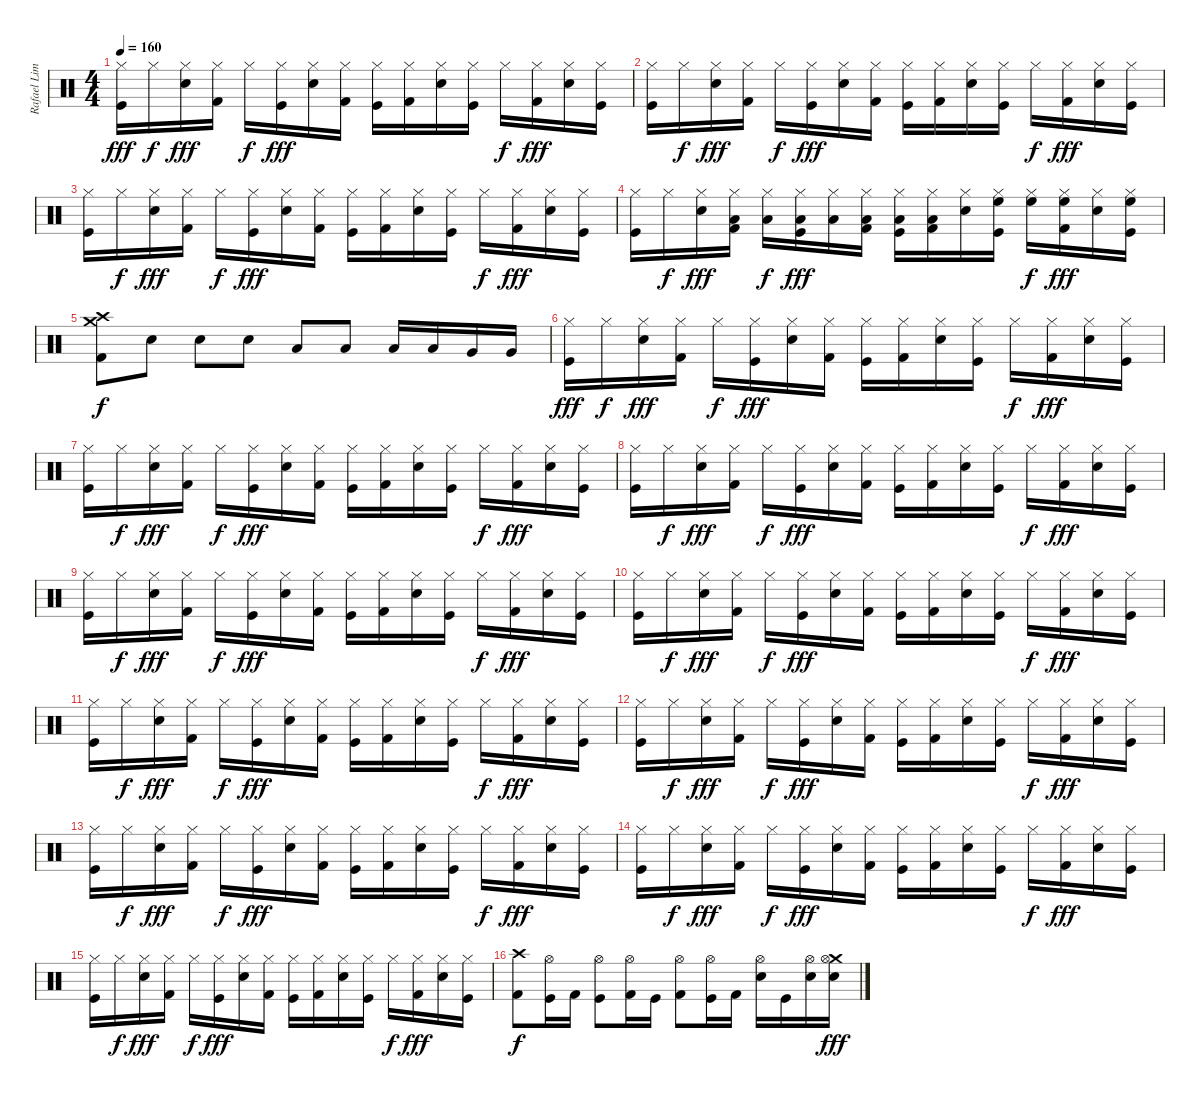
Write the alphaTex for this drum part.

\track ("Rafael Lima" "Rafael Lim") {instrument percussion}
\staff {score}
\articulation defaults
\ts (4 4)
\tempo 160
\clef neutral
\ks c
("Hi-Hat (closed)" "Kick (hit)").16{dy fff} "Hi-Hat (closed)".16{dy f} ("Hi-Hat (closed)" "Electric Snare (hit)").16{dy fff} ("Hi-Hat (closed)" "Kick (hit) 2").16 "Hi-Hat (closed)".16{dy f} ("Hi-Hat (closed)" "Kick (hit)").16{dy fff} ("Hi-Hat (closed)" "Electric Snare (hit)").16 ("Hi-Hat (closed)" "Kick (hit) 2").16 ("Hi-Hat (closed)" "Kick (hit)").16 ("Hi-Hat (closed)" "Kick (hit) 2").16 ("Hi-Hat (closed)" "Electric Snare (hit)").16 ("Hi-Hat (closed)" "Kick (hit)").16 "Hi-Hat (closed)".16{dy f} ("Hi-Hat (closed)" "Kick (hit) 2").16{dy fff} ("Hi-Hat (closed)" "Electric Snare (hit)").16 ("Hi-Hat (closed)" "Kick (hit)").16 |
("Hi-Hat (closed)" "Kick (hit)").16 "Hi-Hat (closed)".16{dy f} ("Hi-Hat (closed)" "Electric Snare (hit)").16{dy fff} ("Hi-Hat (closed)" "Kick (hit) 2").16 "Hi-Hat (closed)".16{dy f} ("Hi-Hat (closed)" "Kick (hit)").16{dy fff} ("Hi-Hat (closed)" "Electric Snare (hit)").16 ("Hi-Hat (closed)" "Kick (hit) 2").16 ("Hi-Hat (closed)" "Kick (hit)").16 ("Hi-Hat (closed)" "Kick (hit) 2").16 ("Hi-Hat (closed)" "Electric Snare (hit)").16 ("Hi-Hat (closed)" "Kick (hit)").16 "Hi-Hat (closed)".16{dy f} ("Hi-Hat (closed)" "Kick (hit) 2").16{dy fff} ("Hi-Hat (closed)" "Electric Snare (hit)").16 ("Hi-Hat (closed)" "Kick (hit)").16 |
("Hi-Hat (closed)" "Kick (hit)").16 "Hi-Hat (closed)".16{dy f} ("Hi-Hat (closed)" "Electric Snare (hit)").16{dy fff} ("Hi-Hat (closed)" "Kick (hit) 2").16 "Hi-Hat (closed)".16{dy f} ("Hi-Hat (closed)" "Kick (hit)").16{dy fff} ("Hi-Hat (closed)" "Electric Snare (hit)").16 ("Hi-Hat (closed)" "Kick (hit) 2").16 ("Hi-Hat (closed)" "Kick (hit)").16 ("Hi-Hat (closed)" "Kick (hit) 2").16 ("Hi-Hat (closed)" "Electric Snare (hit)").16 ("Hi-Hat (closed)" "Kick (hit)").16 "Hi-Hat (closed)".16{dy f} ("Hi-Hat (closed)" "Kick (hit) 2").16{dy fff} ("Hi-Hat (closed)" "Electric Snare (hit)").16 ("Hi-Hat (closed)" "Kick (hit)").16 |
("Hi-Hat (closed)" "Kick (hit)").16 "Hi-Hat (closed)".16{dy f} ("Hi-Hat (closed)" "Electric Snare (hit)").16{dy fff} ("Hi-Hat (closed)" "Low Floor Tom (hit)" "Kick (hit) 2").16 ("Hi-Hat (closed)" "Low Floor Tom (hit)").16{dy f} ("Hi-Hat (closed)" "Low Floor Tom (hit)" "Kick (hit)").16{dy fff} ("Hi-Hat (closed)" "Low Floor Tom (hit)").16 ("Hi-Hat (closed)" "Low Tom (hit)" "Kick (hit) 2").16 ("Hi-Hat (closed)" "Low Tom (hit)" "Kick (hit)").16 ("Hi-Hat (closed)" "Low Tom (hit)" "Kick (hit) 2").16 ("Hi-Hat (closed)" "Electric Snare (hit)").16 ("Hi-Hat (closed)" "High Floor Tom (hit)" "Kick (hit)").16 ("Hi-Hat (closed)" "High Floor Tom (hit)").16{dy f} ("Hi-Hat (closed)" "High Floor Tom (hit)" "Kick (hit) 2").16{dy fff} ("Hi-Hat (closed)" "Electric Snare (hit)").16 ("Hi-Hat (closed)" "High Floor Tom (hit)" "Kick (hit)").16 |
("Crash high (hit)" "Crash medium (hit)" "Kick (hit) 2").8{dy f} "Electric Snare (hit)".8 "Electric Snare (hit)".8 "Electric Snare (hit)".8 "Low Floor Tom (hit)".8 "Low Floor Tom (hit)".8 "Low Floor Tom (hit)".16 "Low Floor Tom (hit)".16 "Very Low Tom (hit)".16 "Very Low Tom (hit)".16 |
("Hi-Hat (closed)" "Kick (hit)").16{dy fff} "Hi-Hat (closed)".16{dy f} ("Hi-Hat (closed)" "Electric Snare (hit)").16{dy fff} ("Hi-Hat (closed)" "Kick (hit) 2").16 "Hi-Hat (closed)".16{dy f} ("Hi-Hat (closed)" "Kick (hit)").16{dy fff} ("Hi-Hat (closed)" "Electric Snare (hit)").16 ("Hi-Hat (closed)" "Kick (hit) 2").16 ("Hi-Hat (closed)" "Kick (hit)").16 ("Hi-Hat (closed)" "Kick (hit) 2").16 ("Hi-Hat (closed)" "Electric Snare (hit)").16 ("Hi-Hat (closed)" "Kick (hit)").16 "Hi-Hat (closed)".16{dy f} ("Hi-Hat (closed)" "Kick (hit) 2").16{dy fff} ("Hi-Hat (closed)" "Electric Snare (hit)").16 ("Hi-Hat (closed)" "Kick (hit)").16 |
("Hi-Hat (closed)" "Kick (hit)").16 "Hi-Hat (closed)".16{dy f} ("Hi-Hat (closed)" "Electric Snare (hit)").16{dy fff} ("Hi-Hat (closed)" "Kick (hit) 2").16 "Hi-Hat (closed)".16{dy f} ("Hi-Hat (closed)" "Kick (hit)").16{dy fff} ("Hi-Hat (closed)" "Electric Snare (hit)").16 ("Hi-Hat (closed)" "Kick (hit) 2").16 ("Hi-Hat (closed)" "Kick (hit)").16 ("Hi-Hat (closed)" "Kick (hit) 2").16 ("Hi-Hat (closed)" "Electric Snare (hit)").16 ("Hi-Hat (closed)" "Kick (hit)").16 "Hi-Hat (closed)".16{dy f} ("Hi-Hat (closed)" "Kick (hit) 2").16{dy fff} ("Hi-Hat (closed)" "Electric Snare (hit)").16 ("Hi-Hat (closed)" "Kick (hit)").16 |
("Hi-Hat (closed)" "Kick (hit)").16 "Hi-Hat (closed)".16{dy f} ("Hi-Hat (closed)" "Electric Snare (hit)").16{dy fff} ("Hi-Hat (closed)" "Kick (hit) 2").16 "Hi-Hat (closed)".16{dy f} ("Hi-Hat (closed)" "Kick (hit)").16{dy fff} ("Hi-Hat (closed)" "Electric Snare (hit)").16 ("Hi-Hat (closed)" "Kick (hit) 2").16 ("Hi-Hat (closed)" "Kick (hit)").16 ("Hi-Hat (closed)" "Kick (hit) 2").16 ("Hi-Hat (closed)" "Electric Snare (hit)").16 ("Hi-Hat (closed)" "Kick (hit)").16 "Hi-Hat (closed)".16{dy f} ("Hi-Hat (closed)" "Kick (hit) 2").16{dy fff} ("Hi-Hat (closed)" "Electric Snare (hit)").16 ("Hi-Hat (closed)" "Kick (hit)").16 |
("Hi-Hat (closed)" "Kick (hit)").16 "Hi-Hat (closed)".16{dy f} ("Hi-Hat (closed)" "Electric Snare (hit)").16{dy fff} ("Hi-Hat (closed)" "Kick (hit) 2").16 "Hi-Hat (closed)".16{dy f} ("Hi-Hat (closed)" "Kick (hit)").16{dy fff} ("Hi-Hat (closed)" "Electric Snare (hit)").16 ("Hi-Hat (closed)" "Kick (hit) 2").16 ("Hi-Hat (closed)" "Kick (hit)").16 ("Hi-Hat (closed)" "Kick (hit) 2").16 ("Hi-Hat (closed)" "Electric Snare (hit)").16 ("Hi-Hat (closed)" "Kick (hit)").16 "Hi-Hat (closed)".16{dy f} ("Hi-Hat (closed)" "Kick (hit) 2").16{dy fff} ("Hi-Hat (closed)" "Electric Snare (hit)").16 ("Hi-Hat (closed)" "Kick (hit)").16 |
("Hi-Hat (closed)" "Kick (hit)").16 "Hi-Hat (closed)".16{dy f} ("Hi-Hat (closed)" "Electric Snare (hit)").16{dy fff} ("Hi-Hat (closed)" "Kick (hit) 2").16 "Hi-Hat (closed)".16{dy f} ("Hi-Hat (closed)" "Kick (hit)").16{dy fff} ("Hi-Hat (closed)" "Electric Snare (hit)").16 ("Hi-Hat (closed)" "Kick (hit) 2").16 ("Hi-Hat (closed)" "Kick (hit)").16 ("Hi-Hat (closed)" "Kick (hit) 2").16 ("Hi-Hat (closed)" "Electric Snare (hit)").16 ("Hi-Hat (closed)" "Kick (hit)").16 "Hi-Hat (closed)".16{dy f} ("Hi-Hat (closed)" "Kick (hit) 2").16{dy fff} ("Hi-Hat (closed)" "Electric Snare (hit)").16 ("Hi-Hat (closed)" "Kick (hit)").16 |
("Hi-Hat (closed)" "Kick (hit)").16 "Hi-Hat (closed)".16{dy f} ("Hi-Hat (closed)" "Electric Snare (hit)").16{dy fff} ("Hi-Hat (closed)" "Kick (hit) 2").16 "Hi-Hat (closed)".16{dy f} ("Hi-Hat (closed)" "Kick (hit)").16{dy fff} ("Hi-Hat (closed)" "Electric Snare (hit)").16 ("Hi-Hat (closed)" "Kick (hit) 2").16 ("Hi-Hat (closed)" "Kick (hit)").16 ("Hi-Hat (closed)" "Kick (hit) 2").16 ("Hi-Hat (closed)" "Electric Snare (hit)").16 ("Hi-Hat (closed)" "Kick (hit)").16 "Hi-Hat (closed)".16{dy f} ("Hi-Hat (closed)" "Kick (hit) 2").16{dy fff} ("Hi-Hat (closed)" "Electric Snare (hit)").16 ("Hi-Hat (closed)" "Kick (hit)").16 |
("Hi-Hat (closed)" "Kick (hit)").16 "Hi-Hat (closed)".16{dy f} ("Hi-Hat (closed)" "Electric Snare (hit)").16{dy fff} ("Hi-Hat (closed)" "Kick (hit) 2").16 "Hi-Hat (closed)".16{dy f} ("Hi-Hat (closed)" "Kick (hit)").16{dy fff} ("Hi-Hat (closed)" "Electric Snare (hit)").16 ("Hi-Hat (closed)" "Kick (hit) 2").16 ("Hi-Hat (closed)" "Kick (hit)").16 ("Hi-Hat (closed)" "Kick (hit) 2").16 ("Hi-Hat (closed)" "Electric Snare (hit)").16 ("Hi-Hat (closed)" "Kick (hit)").16 "Hi-Hat (closed)".16{dy f} ("Hi-Hat (closed)" "Kick (hit) 2").16{dy fff} ("Hi-Hat (closed)" "Electric Snare (hit)").16 ("Hi-Hat (closed)" "Kick (hit)").16 |
("Hi-Hat (closed)" "Kick (hit)").16 "Hi-Hat (closed)".16{dy f} ("Hi-Hat (closed)" "Electric Snare (hit)").16{dy fff} ("Hi-Hat (closed)" "Kick (hit) 2").16 "Hi-Hat (closed)".16{dy f} ("Hi-Hat (closed)" "Kick (hit)").16{dy fff} ("Hi-Hat (closed)" "Electric Snare (hit)").16 ("Hi-Hat (closed)" "Kick (hit) 2").16 ("Hi-Hat (closed)" "Kick (hit)").16 ("Hi-Hat (closed)" "Kick (hit) 2").16 ("Hi-Hat (closed)" "Electric Snare (hit)").16 ("Hi-Hat (closed)" "Kick (hit)").16 "Hi-Hat (closed)".16{dy f} ("Hi-Hat (closed)" "Kick (hit) 2").16{dy fff} ("Hi-Hat (closed)" "Electric Snare (hit)").16 ("Hi-Hat (closed)" "Kick (hit)").16 |
("Hi-Hat (closed)" "Kick (hit)").16 "Hi-Hat (closed)".16{dy f} ("Hi-Hat (closed)" "Electric Snare (hit)").16{dy fff} ("Hi-Hat (closed)" "Kick (hit) 2").16 "Hi-Hat (closed)".16{dy f} ("Hi-Hat (closed)" "Kick (hit)").16{dy fff} ("Hi-Hat (closed)" "Electric Snare (hit)").16 ("Hi-Hat (closed)" "Kick (hit) 2").16 ("Hi-Hat (closed)" "Kick (hit)").16 ("Hi-Hat (closed)" "Kick (hit) 2").16 ("Hi-Hat (closed)" "Electric Snare (hit)").16 ("Hi-Hat (closed)" "Kick (hit)").16 "Hi-Hat (closed)".16{dy f} ("Hi-Hat (closed)" "Kick (hit) 2").16{dy fff} ("Hi-Hat (closed)" "Electric Snare (hit)").16 ("Hi-Hat (closed)" "Kick (hit)").16 |
("Hi-Hat (closed)" "Kick (hit)").16 "Hi-Hat (closed)".16{dy f} ("Hi-Hat (closed)" "Electric Snare (hit)").16{dy fff} ("Hi-Hat (closed)" "Kick (hit) 2").16 "Hi-Hat (closed)".16{dy f} ("Hi-Hat (closed)" "Kick (hit)").16{dy fff} ("Hi-Hat (closed)" "Electric Snare (hit)").16 ("Hi-Hat (closed)" "Kick (hit) 2").16 ("Hi-Hat (closed)" "Kick (hit)").16 ("Hi-Hat (closed)" "Kick (hit) 2").16 ("Hi-Hat (closed)" "Electric Snare (hit)").16 ("Hi-Hat (closed)" "Kick (hit)").16 "Hi-Hat (closed)".16{dy f} ("Hi-Hat (closed)" "Kick (hit) 2").16{dy fff} ("Hi-Hat (closed)" "Electric Snare (hit)").16 ("Hi-Hat (closed)" "Kick (hit)").16 |
("Crash high (hit)" "Kick (hit) 2").8{dy f} ("Hi-Hat (open)" "Kick (hit)").16 "Kick (hit) 2".16 ("Hi-Hat (open)" "Kick (hit)").8 ("Hi-Hat (open)" "Kick (hit) 2").16 "Kick (hit)".16 ("Hi-Hat (open)" "Kick (hit) 2").8 ("Hi-Hat (open)" "Kick (hit)").16 "Kick (hit) 2".16 ("Hi-Hat (open)" "Electric Snare (hit)").16 "Kick (hit)".16 ("Hi-Hat (open)" "Electric Snare (hit)").16 ("Crash medium (hit)" "Hi-Hat (open)" "Electric Snare (hit)").16{dy fff}
